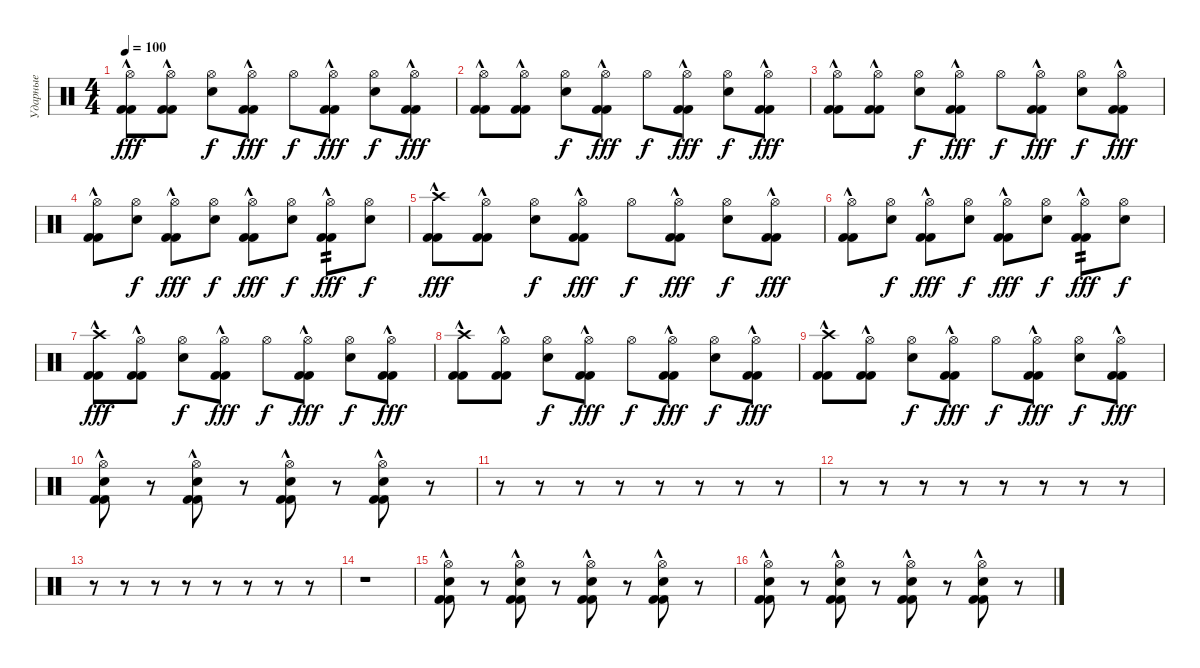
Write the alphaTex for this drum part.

\track ("Ударные" "Ударные") {instrument percussion}
\staff {score}
\articulation defaults
\ts (4 4)
\tempo 100
\clef neutral
\ks c
("Hi-Hat (open)" "Kick (hit) 2"{hac} "Kick (hit) 2").8{dy fff} ("Hi-Hat (open)" "Kick (hit) 2"{hac} "Kick (hit) 2").8 ("Hi-Hat (open)" "Electric Snare (hit)").8{dy f} ("Hi-Hat (open)" "Kick (hit) 2"{hac} "Kick (hit) 2").8{dy fff} "Hi-Hat (open)".8{dy f} ("Hi-Hat (open)" "Kick (hit) 2"{hac} "Kick (hit) 2").8{dy fff} ("Hi-Hat (open)" "Electric Snare (hit)").8{dy f} ("Hi-Hat (open)" "Kick (hit) 2"{hac} "Kick (hit) 2").8{dy fff} |
("Hi-Hat (open)" "Kick (hit) 2"{hac} "Kick (hit) 2").8 ("Hi-Hat (open)" "Kick (hit) 2"{hac} "Kick (hit) 2").8 ("Hi-Hat (open)" "Electric Snare (hit)").8{dy f} ("Hi-Hat (open)" "Kick (hit) 2"{hac} "Kick (hit) 2").8{dy fff} "Hi-Hat (open)".8{dy f} ("Hi-Hat (open)" "Kick (hit) 2"{hac} "Kick (hit) 2").8{dy fff} ("Hi-Hat (open)" "Electric Snare (hit)").8{dy f} ("Hi-Hat (open)" "Kick (hit) 2"{hac} "Kick (hit) 2").8{dy fff} |
("Hi-Hat (open)" "Kick (hit) 2"{hac} "Kick (hit) 2").8 ("Hi-Hat (open)" "Kick (hit) 2"{hac} "Kick (hit) 2").8 ("Hi-Hat (open)" "Electric Snare (hit)").8{dy f} ("Hi-Hat (open)" "Kick (hit) 2"{hac} "Kick (hit) 2").8{dy fff} "Hi-Hat (open)".8{dy f} ("Hi-Hat (open)" "Kick (hit) 2"{hac} "Kick (hit) 2").8{dy fff} ("Hi-Hat (open)" "Electric Snare (hit)").8{dy f} ("Hi-Hat (open)" "Kick (hit) 2"{hac} "Kick (hit) 2").8{dy fff} |
("Hi-Hat (open)" "Kick (hit) 2"{hac} "Kick (hit) 2").8 ("Hi-Hat (open)" "Electric Snare (hit)").8{dy f} ("Hi-Hat (open)" "Kick (hit) 2"{hac} "Kick (hit) 2").8{dy fff} ("Hi-Hat (open)" "Electric Snare (hit)").8{dy f} ("Hi-Hat (open)" "Kick (hit) 2"{hac} "Kick (hit) 2").8{dy fff} ("Hi-Hat (open)" "Electric Snare (hit)").8{dy f} ("Hi-Hat (open)" "Kick (hit) 2"{hac} "Kick (hit) 2").8{tp 2 dy fff} ("Hi-Hat (open)" "Electric Snare (hit)").8{dy f} |
("Crash high (hit)" "Kick (hit) 2"{hac} "Kick (hit) 2").8{dy fff} ("Hi-Hat (open)" "Kick (hit) 2"{hac} "Kick (hit) 2").8 ("Hi-Hat (open)" "Electric Snare (hit)").8{dy f} ("Hi-Hat (open)" "Kick (hit) 2"{hac} "Kick (hit) 2").8{dy fff} "Hi-Hat (open)".8{dy f} ("Hi-Hat (open)" "Kick (hit) 2"{hac} "Kick (hit) 2").8{dy fff} ("Hi-Hat (open)" "Electric Snare (hit)").8{dy f} ("Hi-Hat (open)" "Kick (hit) 2"{hac} "Kick (hit) 2").8{dy fff} |
("Hi-Hat (open)" "Kick (hit) 2"{hac} "Kick (hit) 2").8 ("Hi-Hat (open)" "Electric Snare (hit)").8{dy f} ("Hi-Hat (open)" "Kick (hit) 2"{hac} "Kick (hit) 2").8{dy fff} ("Hi-Hat (open)" "Electric Snare (hit)").8{dy f} ("Hi-Hat (open)" "Kick (hit) 2"{hac} "Kick (hit) 2").8{dy fff} ("Hi-Hat (open)" "Electric Snare (hit)").8{dy f} ("Hi-Hat (open)" "Kick (hit) 2"{hac} "Kick (hit) 2").8{tp 2 dy fff} ("Hi-Hat (open)" "Electric Snare (hit)").8{dy f} |
("Crash high (hit)" "Kick (hit) 2"{hac} "Kick (hit) 2").8{dy fff} ("Hi-Hat (open)" "Kick (hit) 2"{hac} "Kick (hit) 2").8 ("Hi-Hat (open)" "Electric Snare (hit)").8{dy f} ("Hi-Hat (open)" "Kick (hit) 2"{hac} "Kick (hit) 2").8{dy fff} "Hi-Hat (open)".8{dy f} ("Hi-Hat (open)" "Kick (hit) 2"{hac} "Kick (hit) 2").8{dy fff} ("Hi-Hat (open)" "Electric Snare (hit)").8{dy f} ("Hi-Hat (open)" "Kick (hit) 2"{hac} "Kick (hit) 2").8{dy fff} |
("Crash high (hit)" "Kick (hit) 2"{hac} "Kick (hit) 2").8 ("Hi-Hat (open)" "Kick (hit) 2"{hac} "Kick (hit) 2").8 ("Hi-Hat (open)" "Electric Snare (hit)").8{dy f} ("Hi-Hat (open)" "Kick (hit) 2"{hac} "Kick (hit) 2").8{dy fff} "Hi-Hat (open)".8{dy f} ("Hi-Hat (open)" "Kick (hit) 2"{hac} "Kick (hit) 2").8{dy fff} ("Hi-Hat (open)" "Electric Snare (hit)").8{dy f} ("Hi-Hat (open)" "Kick (hit) 2"{hac} "Kick (hit) 2").8{dy fff} |
("Crash high (hit)" "Kick (hit) 2"{hac} "Kick (hit) 2").8 ("Hi-Hat (open)" "Kick (hit) 2"{hac} "Kick (hit) 2").8 ("Hi-Hat (open)" "Electric Snare (hit)").8{dy f} ("Hi-Hat (open)" "Kick (hit) 2"{hac} "Kick (hit) 2").8{dy fff} "Hi-Hat (open)".8{dy f} ("Hi-Hat (open)" "Kick (hit) 2"{hac} "Kick (hit) 2").8{dy fff} ("Hi-Hat (open)" "Electric Snare (hit)").8{dy f} ("Hi-Hat (open)" "Kick (hit) 2"{hac} "Kick (hit) 2").8{dy fff} |
("Hi-Hat (open)" "Kick (hit) 2"{hac} "Kick (hit) 2" "Snare (hit) 2").8 r.8 ("Hi-Hat (open)" "Kick (hit) 2"{hac} "Kick (hit) 2" "Snare (hit) 2").8 r.8 ("Hi-Hat (open)" "Kick (hit) 2"{hac} "Kick (hit) 2" "Snare (hit) 2").8 r.8 ("Hi-Hat (open)" "Kick (hit) 2"{hac} "Kick (hit) 2" "Snare (hit) 2").8 r.8 |
r.8 r.8 r.8 r.8 r.8 r.8 r.8 r.8 |
r.8 r.8 r.8 r.8 r.8 r.8 r.8 r.8 |
r.8 r.8 r.8 r.8 r.8 r.8 r.8 r.8 |
r.1 |
("Hi-Hat (open)" "Kick (hit) 2"{hac} "Kick (hit) 2" "Snare (hit) 2").8 r.8 ("Hi-Hat (open)" "Kick (hit) 2"{hac} "Kick (hit) 2" "Snare (hit) 2").8 r.8 ("Hi-Hat (open)" "Kick (hit) 2"{hac} "Kick (hit) 2" "Snare (hit) 2").8 r.8 ("Hi-Hat (open)" "Kick (hit) 2"{hac} "Kick (hit) 2" "Snare (hit) 2").8 r.8 |
("Hi-Hat (open)" "Kick (hit) 2"{hac} "Kick (hit) 2" "Snare (hit) 2").8 r.8 ("Hi-Hat (open)" "Kick (hit) 2"{hac} "Kick (hit) 2" "Snare (hit) 2").8 r.8 ("Hi-Hat (open)" "Kick (hit) 2"{hac} "Kick (hit) 2" "Snare (hit) 2").8 r.8 ("Hi-Hat (open)" "Kick (hit) 2"{hac} "Kick (hit) 2" "Snare (hit) 2").8 r.8
